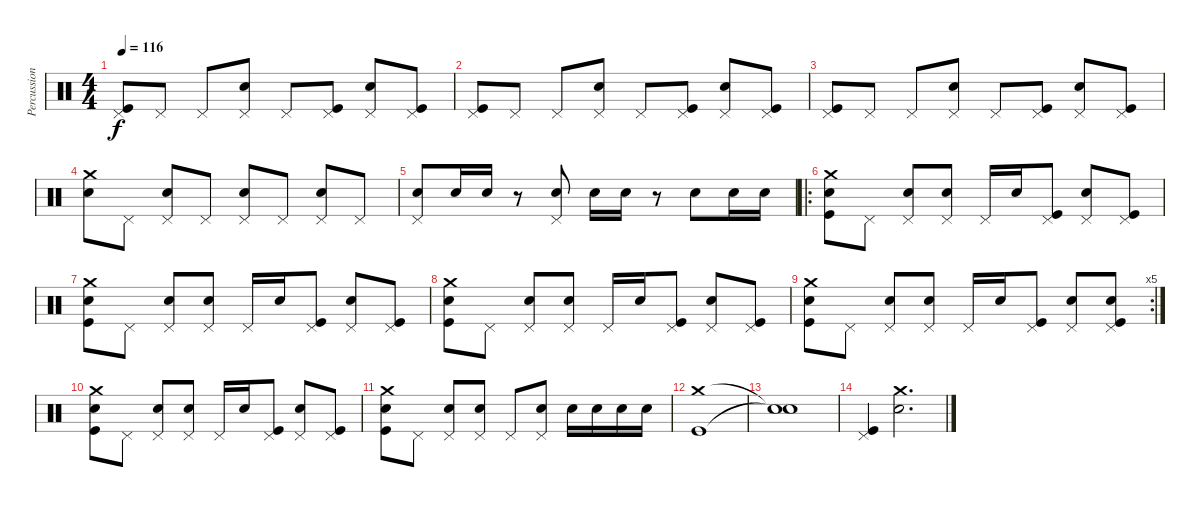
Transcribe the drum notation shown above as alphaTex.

\track ("Percussions" "Percussion") {instrument percussion}
\staff {score}
\articulation defaults
\ts (4 4)
\tempo 116
\clef neutral
\ks c
("Pedal Hi-Hat (hit)" "Kick (hit)").8{dy f} "Pedal Hi-Hat (hit)".8 "Pedal Hi-Hat (hit)".8 ("Pedal Hi-Hat (hit)" "Snare (hit) 2").8 "Pedal Hi-Hat (hit)".8 ("Pedal Hi-Hat (hit)" "Kick (hit)").8 ("Pedal Hi-Hat (hit)" "Snare (hit) 2").8 ("Pedal Hi-Hat (hit)" "Kick (hit)").8 |
("Pedal Hi-Hat (hit)" "Kick (hit)").8 "Pedal Hi-Hat (hit)".8 "Pedal Hi-Hat (hit)".8 ("Pedal Hi-Hat (hit)" "Snare (hit) 2").8 "Pedal Hi-Hat (hit)".8 ("Pedal Hi-Hat (hit)" "Kick (hit)").8 ("Pedal Hi-Hat (hit)" "Snare (hit) 2").8 ("Pedal Hi-Hat (hit)" "Kick (hit)").8 |
("Pedal Hi-Hat (hit)" "Kick (hit)").8 "Pedal Hi-Hat (hit)".8 "Pedal Hi-Hat (hit)".8 ("Pedal Hi-Hat (hit)" "Snare (hit) 2").8 "Pedal Hi-Hat (hit)".8 ("Pedal Hi-Hat (hit)" "Kick (hit)").8 ("Pedal Hi-Hat (hit)" "Snare (hit) 2").8 ("Pedal Hi-Hat (hit)" "Kick (hit)").8 |
("Crash medium (hit)" "Snare (hit) 2").8 "Pedal Hi-Hat (hit)".8 ("Pedal Hi-Hat (hit)" "Snare (hit) 2").8 "Pedal Hi-Hat (hit)".8 ("Pedal Hi-Hat (hit)" "Snare (hit) 2").8 "Pedal Hi-Hat (hit)".8 ("Pedal Hi-Hat (hit)" "Snare (hit) 2").8 "Pedal Hi-Hat (hit)".8 |
("Pedal Hi-Hat (hit)" "Snare (hit) 2").8 "Snare (hit) 2".16 "Snare (hit) 2".16 r.8 ("Pedal Hi-Hat (hit)" "Snare (hit) 2").8 "Snare (hit) 2".16 "Snare (hit) 2".16 r.8 "Snare (hit) 2".8 "Snare (hit) 2".16 "Snare (hit) 2".16 |
\ro
("Crash medium (hit)" "Snare (hit) 2" "Kick (hit)").8 "Pedal Hi-Hat (hit)".8 ("Pedal Hi-Hat (hit)" "Snare (hit) 2").8 ("Pedal Hi-Hat (hit)" "Snare (hit) 2").8 "Pedal Hi-Hat (hit)".16 "Snare (hit) 2".16 ("Pedal Hi-Hat (hit)" "Kick (hit)").8 ("Pedal Hi-Hat (hit)" "Snare (hit) 2").8 ("Pedal Hi-Hat (hit)" "Kick (hit)").8 |
("Crash medium (hit)" "Snare (hit) 2" "Kick (hit)").8 "Pedal Hi-Hat (hit)".8 ("Pedal Hi-Hat (hit)" "Snare (hit) 2").8 ("Pedal Hi-Hat (hit)" "Snare (hit) 2").8 "Pedal Hi-Hat (hit)".16 "Snare (hit) 2".16 ("Pedal Hi-Hat (hit)" "Kick (hit)").8 ("Pedal Hi-Hat (hit)" "Snare (hit) 2").8 ("Pedal Hi-Hat (hit)" "Kick (hit)").8 |
("Crash medium (hit)" "Snare (hit) 2" "Kick (hit)").8 "Pedal Hi-Hat (hit)".8 ("Pedal Hi-Hat (hit)" "Snare (hit) 2").8 ("Pedal Hi-Hat (hit)" "Snare (hit) 2").8 "Pedal Hi-Hat (hit)".16 "Snare (hit) 2".16 ("Pedal Hi-Hat (hit)" "Kick (hit)").8 ("Pedal Hi-Hat (hit)" "Snare (hit) 2").8 ("Pedal Hi-Hat (hit)" "Kick (hit)").8 |
\rc 5
("Crash medium (hit)" "Snare (hit) 2" "Kick (hit)").8 "Pedal Hi-Hat (hit)".8 ("Pedal Hi-Hat (hit)" "Snare (hit) 2").8 ("Pedal Hi-Hat (hit)" "Snare (hit) 2").8 "Pedal Hi-Hat (hit)".16 "Snare (hit) 2".16 ("Pedal Hi-Hat (hit)" "Kick (hit)").8 ("Pedal Hi-Hat (hit)" "Snare (hit) 2").8 ("Pedal Hi-Hat (hit)" "Snare (hit) 2" "Kick (hit)").8 |
("Crash medium (hit)" "Snare (hit) 2" "Kick (hit)").8 "Pedal Hi-Hat (hit)".8 ("Pedal Hi-Hat (hit)" "Snare (hit) 2").8 ("Pedal Hi-Hat (hit)" "Snare (hit) 2").8 "Pedal Hi-Hat (hit)".16 "Snare (hit) 2".16 ("Pedal Hi-Hat (hit)" "Kick (hit)").8 ("Pedal Hi-Hat (hit)" "Snare (hit) 2").8 ("Pedal Hi-Hat (hit)" "Kick (hit)").8 |
("Crash medium (hit)" "Snare (hit) 2" "Kick (hit)").8 "Pedal Hi-Hat (hit)".8 ("Pedal Hi-Hat (hit)" "Snare (hit) 2").8 ("Pedal Hi-Hat (hit)" "Snare (hit) 2").8 "Pedal Hi-Hat (hit)".8 ("Pedal Hi-Hat (hit)" "Snare (hit) 2").8 "Snare (hit) 2".16 "Snare (hit) 2".16 "Snare (hit) 2".16 "Snare (hit) 2".16 |
("Crash medium (hit)" "Kick (hit)").1 |
("Snare (hit)"{t} "Snare (hit)"{t}).1 |
("Pedal Hi-Hat (hit)" "Kick (hit)").4 ("Crash medium (hit)" "Snare (hit) 2").2{d}
